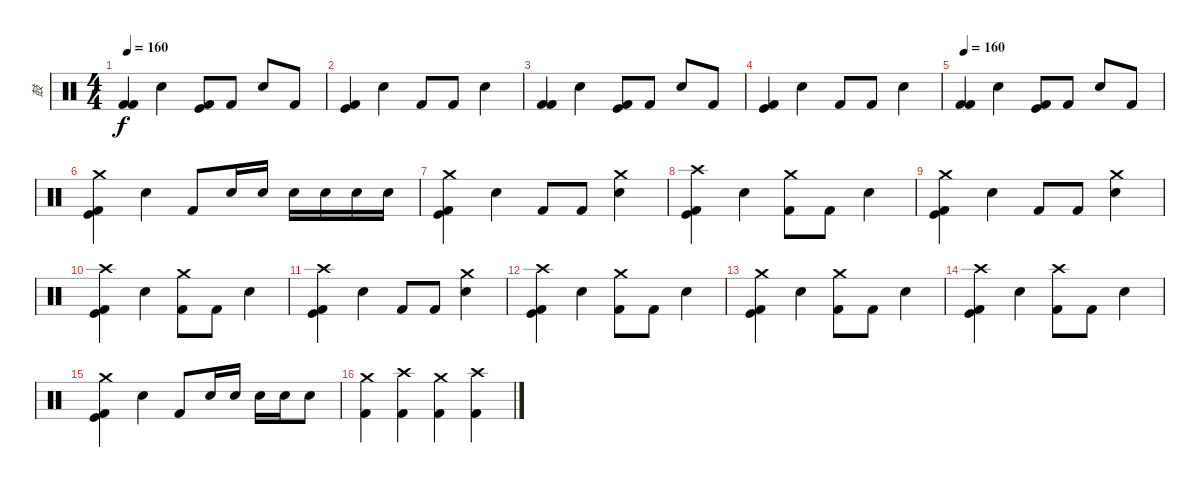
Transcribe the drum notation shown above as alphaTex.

\track ("鼓" "鼓") {instrument percussion}
\staff {score}
\articulation defaults
\ts (4 4)
\tempo 160
\clef neutral
\ks c
("Kick (hit) 2" "Kick (hit) 2").4{dy f} "Snare (hit) 2".4 ("Kick (hit) 2" "Kick (hit)").8 "Kick (hit) 2".8 "Snare (hit) 2".8 "Kick (hit) 2".8 |
("Kick (hit)" "Kick (hit) 2").4 "Snare (hit) 2".4 "Kick (hit) 2".8 "Kick (hit) 2".8 "Snare (hit) 2".4 |
("Kick (hit) 2" "Kick (hit) 2").4 "Snare (hit) 2".4 ("Kick (hit) 2" "Kick (hit)").8 "Kick (hit) 2".8 "Snare (hit) 2".8 "Kick (hit) 2".8 |
("Kick (hit)" "Kick (hit) 2").4 "Snare (hit) 2".4 "Kick (hit) 2".8 "Kick (hit) 2".8 "Snare (hit) 2".4 |
\tempo 160
("Kick (hit) 2" "Kick (hit) 2").4 "Snare (hit) 2".4 ("Kick (hit) 2" "Kick (hit)").8 "Kick (hit) 2".8 "Snare (hit) 2".8 "Kick (hit) 2".8 |
("Crash medium (hit)" "Kick (hit)" "Kick (hit) 2").4 "Snare (hit) 2".4 "Kick (hit) 2".8 "Snare (hit) 2".16 "Snare (hit) 2".16 "Snare (hit) 2".16 "Snare (hit) 2".16 "Snare (hit) 2".16 "Snare (hit) 2".16 |
("Crash medium (hit)" "Kick (hit)" "Kick (hit) 2").4 "Snare (hit) 2".4 "Kick (hit) 2".8 "Kick (hit) 2".8 ("Crash medium (hit)" "Snare (hit) 2").4 |
("Crash high (hit)" "Kick (hit)" "Kick (hit) 2").4 "Snare (hit) 2".4 ("Crash medium (hit)" "Kick (hit) 2").8 "Kick (hit) 2".8 "Snare (hit) 2".4 |
("Crash medium (hit)" "Kick (hit)" "Kick (hit) 2").4 "Snare (hit) 2".4 "Kick (hit) 2".8 "Kick (hit) 2".8 ("Crash medium (hit)" "Snare (hit) 2").4 |
("Crash high (hit)" "Kick (hit)" "Kick (hit) 2").4 "Snare (hit) 2".4 ("Crash medium (hit)" "Kick (hit) 2").8 "Kick (hit) 2".8 "Snare (hit) 2".4 |
("Crash high (hit)" "Kick (hit)" "Kick (hit) 2").4 "Snare (hit) 2".4 "Kick (hit) 2".8 "Kick (hit) 2".8 ("Crash medium (hit)" "Snare (hit) 2").4 |
("Crash high (hit)" "Kick (hit)" "Kick (hit) 2").4 "Snare (hit) 2".4 ("Crash medium (hit)" "Kick (hit) 2").8 "Kick (hit) 2".8 "Snare (hit) 2".4 |
("Crash medium (hit)" "Kick (hit)" "Kick (hit) 2").4 "Snare (hit) 2".4 ("Crash medium (hit)" "Kick (hit) 2").8 "Kick (hit) 2".8 "Snare (hit) 2".4 |
("Crash high (hit)" "Kick (hit)" "Kick (hit) 2").4 "Snare (hit) 2".4 ("Crash high (hit)" "Kick (hit) 2").8 "Kick (hit) 2".8 "Snare (hit) 2".4 |
("Crash medium (hit)" "Kick (hit)" "Kick (hit) 2").4 "Snare (hit) 2".4 "Kick (hit) 2".8 "Snare (hit) 2".16 "Snare (hit) 2".16 "Snare (hit) 2".16 "Snare (hit) 2".16 "Snare (hit) 2".8 |
("Crash medium (hit)" "Kick (hit) 2").4 ("Crash high (hit)" "Kick (hit) 2").4 ("Crash medium (hit)" "Kick (hit) 2").4 ("Crash high (hit)" "Kick (hit) 2").4
